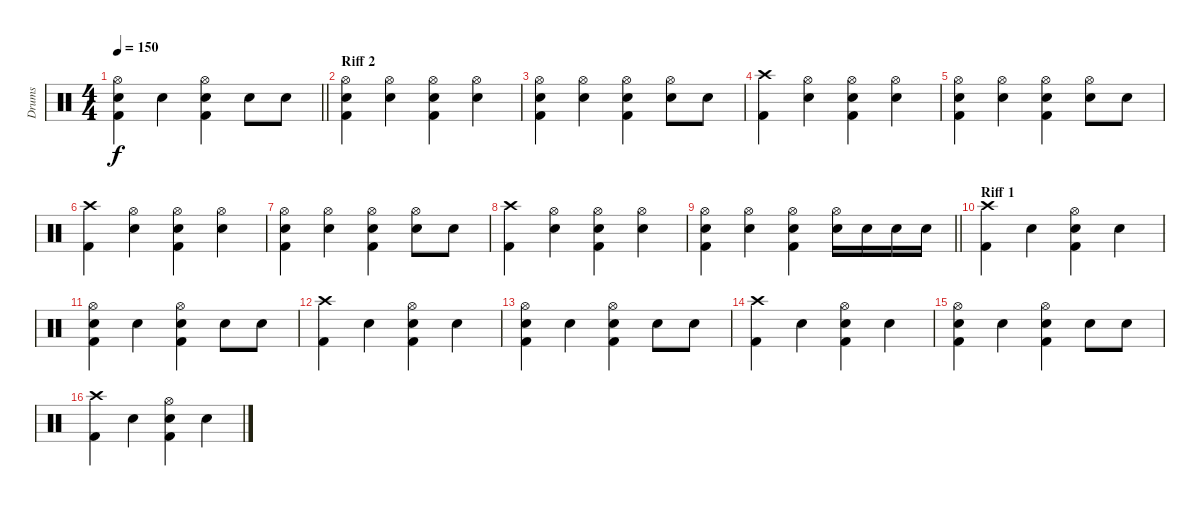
\track ("Drums" "Drums") {instrument percussion}
\staff
\articulation defaults
\ts (4 4)
\tempo 150
\clef neutral
\barLineRight lightlight
\ks c
("Hi-Hat (open)" "Snare (hit) 2" "Kick (hit) 2").4{dy f} "Snare (hit) 2".4 ("Hi-Hat (open)" "Snare (hit) 2" "Kick (hit) 2").4 "Snare (hit) 2".8 "Snare (hit) 2".8 |
\section ("" "Riff 2")
("Hi-Hat (open)" "Snare (hit) 2" "Kick (hit) 2").4 ("Hi-Hat (open)" "Snare (hit) 2").4 ("Hi-Hat (open)" "Snare (hit) 2" "Kick (hit) 2").4 ("Hi-Hat (open)" "Snare (hit) 2").4 |
("Hi-Hat (open)" "Snare (hit) 2" "Kick (hit) 2").4 ("Hi-Hat (open)" "Snare (hit) 2").4 ("Hi-Hat (open)" "Snare (hit) 2" "Kick (hit) 2").4 ("Hi-Hat (open)" "Snare (hit) 2").8 "Snare (hit) 2".8 |
("Crash high (hit)" "Kick (hit) 2").4 ("Hi-Hat (open)" "Snare (hit) 2").4 ("Hi-Hat (open)" "Snare (hit) 2" "Kick (hit) 2").4 ("Hi-Hat (open)" "Snare (hit) 2").4 |
("Hi-Hat (open)" "Snare (hit) 2" "Kick (hit) 2").4 ("Hi-Hat (open)" "Snare (hit) 2").4 ("Hi-Hat (open)" "Snare (hit) 2" "Kick (hit) 2").4 ("Hi-Hat (open)" "Snare (hit) 2").8 "Snare (hit) 2".8 |
("Crash high (hit)" "Kick (hit) 2").4 ("Hi-Hat (open)" "Snare (hit) 2").4 ("Hi-Hat (open)" "Snare (hit) 2" "Kick (hit) 2").4 ("Hi-Hat (open)" "Snare (hit) 2").4 |
("Hi-Hat (open)" "Snare (hit) 2" "Kick (hit) 2").4 ("Hi-Hat (open)" "Snare (hit) 2").4 ("Hi-Hat (open)" "Snare (hit) 2" "Kick (hit) 2").4 ("Hi-Hat (open)" "Snare (hit) 2").8 "Snare (hit) 2".8 |
("Crash high (hit)" "Kick (hit) 2").4 ("Hi-Hat (open)" "Snare (hit) 2").4 ("Hi-Hat (open)" "Snare (hit) 2" "Kick (hit) 2").4 ("Hi-Hat (open)" "Snare (hit) 2").4 |
\barLineRight lightlight
("Hi-Hat (open)" "Snare (hit) 2" "Kick (hit) 2").4 ("Hi-Hat (open)" "Snare (hit) 2").4 ("Hi-Hat (open)" "Snare (hit) 2" "Kick (hit) 2").4 ("Hi-Hat (open)" "Snare (hit) 2").16 "Snare (hit) 2".16 "Snare (hit) 2".16 "Snare (hit) 2".16 |
\section ("" "Riff 1")
("Crash high (hit)" "Kick (hit) 2").4 "Snare (hit) 2".4 ("Hi-Hat (open)" "Snare (hit) 2" "Kick (hit) 2").4 "Snare (hit) 2".4 |
("Hi-Hat (open)" "Snare (hit) 2" "Kick (hit) 2").4 "Snare (hit) 2".4 ("Hi-Hat (open)" "Snare (hit) 2" "Kick (hit) 2").4 "Snare (hit) 2".8 "Snare (hit) 2".8 |
("Crash high (hit)" "Kick (hit) 2").4 "Snare (hit) 2".4 ("Hi-Hat (open)" "Snare (hit) 2" "Kick (hit) 2").4 "Snare (hit) 2".4 |
("Hi-Hat (open)" "Snare (hit) 2" "Kick (hit) 2").4 "Snare (hit) 2".4 ("Hi-Hat (open)" "Snare (hit) 2" "Kick (hit) 2").4 "Snare (hit) 2".8 "Snare (hit) 2".8 |
("Crash high (hit)" "Kick (hit) 2").4 "Snare (hit) 2".4 ("Hi-Hat (open)" "Snare (hit) 2" "Kick (hit) 2").4 "Snare (hit) 2".4 |
("Hi-Hat (open)" "Snare (hit) 2" "Kick (hit) 2").4 "Snare (hit) 2".4 ("Hi-Hat (open)" "Snare (hit) 2" "Kick (hit) 2").4 "Snare (hit) 2".8 "Snare (hit) 2".8 |
("Crash high (hit)" "Kick (hit) 2").4 "Snare (hit) 2".4 ("Hi-Hat (open)" "Snare (hit) 2" "Kick (hit) 2").4 "Snare (hit) 2".4
